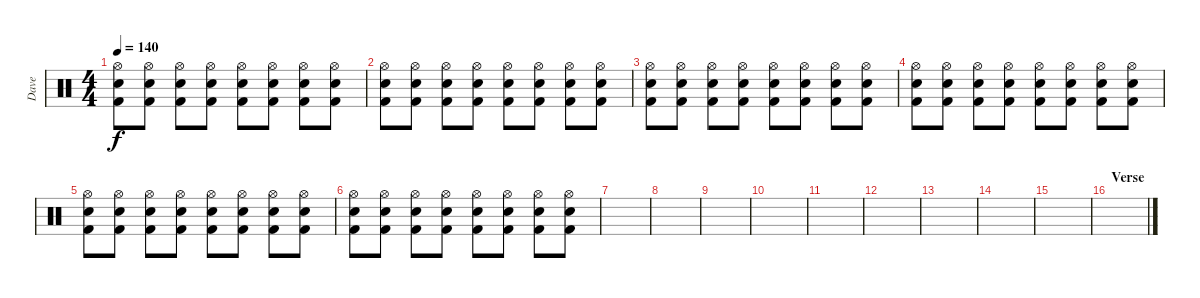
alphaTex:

\track ("Dave" "Dave") {instrument percussion}
\staff {score}
\articulation defaults
\ts (4 4)
\tempo 140
\clef neutral
\ks c
("Hi-Hat (open)" "Snare (hit) 2" "Kick (hit) 2").8{dy f} ("Hi-Hat (open)" "Snare (hit) 2" "Kick (hit) 2").8 ("Hi-Hat (open)" "Snare (hit) 2" "Kick (hit) 2").8 ("Hi-Hat (open)" "Snare (hit) 2" "Kick (hit) 2").8 ("Hi-Hat (open)" "Snare (hit) 2" "Kick (hit) 2").8 ("Hi-Hat (open)" "Snare (hit) 2" "Kick (hit) 2").8 ("Hi-Hat (open)" "Snare (hit) 2" "Kick (hit) 2").8 ("Hi-Hat (open)" "Snare (hit) 2" "Kick (hit) 2").8 |
("Hi-Hat (open)" "Snare (hit) 2" "Kick (hit) 2").8 ("Hi-Hat (open)" "Snare (hit) 2" "Kick (hit) 2").8 ("Hi-Hat (open)" "Snare (hit) 2" "Kick (hit) 2").8 ("Hi-Hat (open)" "Snare (hit) 2" "Kick (hit) 2").8 ("Hi-Hat (open)" "Snare (hit) 2" "Kick (hit) 2").8 ("Hi-Hat (open)" "Snare (hit) 2" "Kick (hit) 2").8 ("Hi-Hat (open)" "Snare (hit) 2" "Kick (hit) 2").8 ("Hi-Hat (open)" "Snare (hit) 2" "Kick (hit) 2").8 |
("Hi-Hat (open)" "Snare (hit) 2" "Kick (hit) 2").8 ("Hi-Hat (open)" "Snare (hit) 2" "Kick (hit) 2").8 ("Hi-Hat (open)" "Snare (hit) 2" "Kick (hit) 2").8 ("Hi-Hat (open)" "Snare (hit) 2" "Kick (hit) 2").8 ("Hi-Hat (open)" "Snare (hit) 2" "Kick (hit) 2").8 ("Hi-Hat (open)" "Snare (hit) 2" "Kick (hit) 2").8 ("Hi-Hat (open)" "Snare (hit) 2" "Kick (hit) 2").8 ("Hi-Hat (open)" "Snare (hit) 2" "Kick (hit) 2").8 |
("Hi-Hat (open)" "Snare (hit) 2" "Kick (hit) 2").8 ("Hi-Hat (open)" "Snare (hit) 2" "Kick (hit) 2").8 ("Hi-Hat (open)" "Snare (hit) 2" "Kick (hit) 2").8 ("Hi-Hat (open)" "Snare (hit) 2" "Kick (hit) 2").8 ("Hi-Hat (open)" "Snare (hit) 2" "Kick (hit) 2").8 ("Hi-Hat (open)" "Snare (hit) 2" "Kick (hit) 2").8 ("Hi-Hat (open)" "Snare (hit) 2" "Kick (hit) 2").8 ("Hi-Hat (open)" "Snare (hit) 2" "Kick (hit) 2").8 |
("Hi-Hat (open)" "Snare (hit) 2" "Kick (hit) 2").8 ("Hi-Hat (open)" "Snare (hit) 2" "Kick (hit) 2").8 ("Hi-Hat (open)" "Snare (hit) 2" "Kick (hit) 2").8 ("Hi-Hat (open)" "Snare (hit) 2" "Kick (hit) 2").8 ("Hi-Hat (open)" "Snare (hit) 2" "Kick (hit) 2").8 ("Hi-Hat (open)" "Snare (hit) 2" "Kick (hit) 2").8 ("Hi-Hat (open)" "Snare (hit) 2" "Kick (hit) 2").8 ("Hi-Hat (open)" "Snare (hit) 2" "Kick (hit) 2").8 |
("Hi-Hat (open)" "Snare (hit) 2" "Kick (hit) 2").8 ("Hi-Hat (open)" "Snare (hit) 2" "Kick (hit) 2").8 ("Hi-Hat (open)" "Snare (hit) 2" "Kick (hit) 2").8 ("Hi-Hat (open)" "Snare (hit) 2" "Kick (hit) 2").8 ("Hi-Hat (open)" "Snare (hit) 2" "Kick (hit) 2").8 ("Hi-Hat (open)" "Snare (hit) 2" "Kick (hit) 2").8 ("Hi-Hat (open)" "Snare (hit) 2" "Kick (hit) 2").8 ("Hi-Hat (open)" "Snare (hit) 2" "Kick (hit) 2").8 |
|
|
|
|
|
|
|
|
|
\section ("" "Verse")
